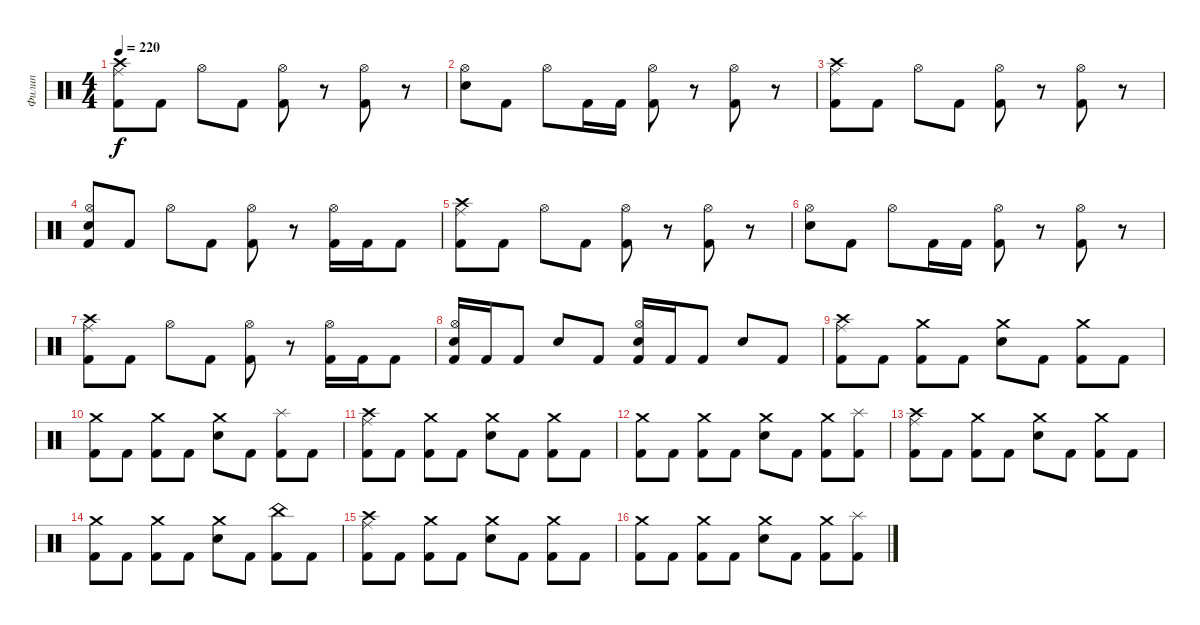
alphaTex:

\track ("Филип" "Филип") {instrument percussion}
\staff {score}
\articulation defaults
\ts (4 4)
\tempo 220
\clef neutral
\ks c
("Crash high (hit)" "Ride (middle)" "Kick (hit) 2").8{dy f} "Kick (hit) 2".8 "Hi-Hat (open)".8 "Kick (hit) 2".8 ("Kick (hit) 2" "Hi-Hat (open)").8 r.8 ("Hi-Hat (open)" "Kick (hit) 2").8 r.8 |
("Hi-Hat (open)" "Electric Snare (hit)").8 "Kick (hit) 2".8 "Hi-Hat (open)".8 "Kick (hit) 2".16 "Kick (hit) 2".16 ("Kick (hit) 2" "Hi-Hat (open)").8 r.8 ("Hi-Hat (open)" "Kick (hit) 2").8 r.8 |
("Crash high (hit)" "Ride (middle)" "Kick (hit) 2").8 "Kick (hit) 2".8 "Hi-Hat (open)".8 "Kick (hit) 2".8 ("Kick (hit) 2" "Hi-Hat (open)").8 r.8 ("Hi-Hat (open)" "Kick (hit) 2").8 r.8 |
("Kick (hit) 2" "Hi-Hat (open)" "Electric Snare (hit)").8 "Kick (hit) 2".8 "Hi-Hat (open)".8 "Kick (hit) 2".8 ("Kick (hit) 2" "Hi-Hat (open)").8 r.8 ("Hi-Hat (open)" "Kick (hit) 2").16 "Kick (hit) 2".16 "Kick (hit) 2".8 |
("Crash high (hit)" "Ride (middle)" "Kick (hit) 2").8 "Kick (hit) 2".8 "Hi-Hat (open)".8 "Kick (hit) 2".8 ("Kick (hit) 2" "Hi-Hat (open)").8 r.8 ("Hi-Hat (open)" "Kick (hit) 2").8 r.8 |
("Hi-Hat (open)" "Electric Snare (hit)").8 "Kick (hit) 2".8 "Hi-Hat (open)".8 "Kick (hit) 2".16 "Kick (hit) 2".16 ("Kick (hit) 2" "Hi-Hat (open)").8 r.8 ("Hi-Hat (open)" "Kick (hit) 2").8 r.8 |
("Crash high (hit)" "Ride (middle)" "Kick (hit) 2").8 "Kick (hit) 2".8 "Hi-Hat (open)".8 "Kick (hit) 2".8 ("Kick (hit) 2" "Hi-Hat (open)").8 r.8 ("Hi-Hat (open)" "Kick (hit) 2").16 "Kick (hit) 2".16 "Kick (hit) 2".8 |
("Snare (hit) 2" "Hi-Hat (open)" "Kick (hit) 2").16 "Kick (hit) 2".16 "Kick (hit) 2".8 "Snare (hit) 2".8 "Kick (hit) 2".8 ("Snare (hit) 2" "Hi-Hat (open)" "Kick (hit) 2").16 "Kick (hit) 2".16 "Kick (hit) 2".8 "Snare (hit) 2".8 "Kick (hit) 2".8 |
("Crash high (hit)" "Ride (middle)" "Kick (hit) 2").8 "Kick (hit) 2".8 ("Crash medium (hit)" "Kick (hit) 2").8 "Kick (hit) 2".8 ("Crash medium (hit)" "Electric Snare (hit)").8 "Kick (hit) 2".8 ("Crash medium (hit)" "Kick (hit) 2").8 "Kick (hit) 2".8 |
("Crash medium (hit)" "Kick (hit) 2").8 "Kick (hit) 2".8 ("Crash medium (hit)" "Kick (hit) 2").8 "Kick (hit) 2".8 ("Crash medium (hit)" "Electric Snare (hit)").8 "Kick (hit) 2".8 ("Splash (hit)" "Kick (hit) 2").8 "Kick (hit) 2".8 |
("Crash high (hit)" "Ride (middle)" "Kick (hit) 2").8 "Kick (hit) 2".8 ("Crash medium (hit)" "Kick (hit) 2").8 "Kick (hit) 2".8 ("Crash medium (hit)" "Electric Snare (hit)").8 "Kick (hit) 2".8 ("Crash medium (hit)" "Kick (hit) 2").8 "Kick (hit) 2".8 |
("Crash medium (hit)" "Kick (hit) 2").8 "Kick (hit) 2".8 ("Crash medium (hit)" "Kick (hit) 2").8 "Kick (hit) 2".8 ("Crash medium (hit)" "Electric Snare (hit)").8 "Kick (hit) 2".8 ("Crash medium (hit)" "Kick (hit) 2").8 ("Splash (hit)" "Kick (hit) 2").8 |
("Crash high (hit)" "Ride (middle)" "Kick (hit) 2").8 "Kick (hit) 2".8 ("Crash medium (hit)" "Kick (hit) 2").8 "Kick (hit) 2".8 ("Crash medium (hit)" "Electric Snare (hit)").8 "Kick (hit) 2".8 ("Crash medium (hit)" "Kick (hit) 2").8 "Kick (hit) 2".8 |
("Crash medium (hit)" "Kick (hit) 2").8 "Kick (hit) 2".8 ("Crash medium (hit)" "Kick (hit) 2").8 "Kick (hit) 2".8 ("Crash medium (hit)" "Electric Snare (hit)").8 "Kick (hit) 2".8 ("China (hit)" "Kick (hit) 2").8 "Kick (hit) 2".8 |
("Crash high (hit)" "Ride (middle)" "Kick (hit) 2").8 "Kick (hit) 2".8 ("Crash medium (hit)" "Kick (hit) 2").8 "Kick (hit) 2".8 ("Crash medium (hit)" "Electric Snare (hit)").8 "Kick (hit) 2".8 ("Crash medium (hit)" "Kick (hit) 2").8 "Kick (hit) 2".8 |
("Crash medium (hit)" "Kick (hit) 2").8 "Kick (hit) 2".8 ("Crash medium (hit)" "Kick (hit) 2").8 "Kick (hit) 2".8 ("Crash medium (hit)" "Electric Snare (hit)").8 "Kick (hit) 2".8 ("Crash medium (hit)" "Kick (hit) 2").8 ("Splash (hit)" "Kick (hit) 2").8
